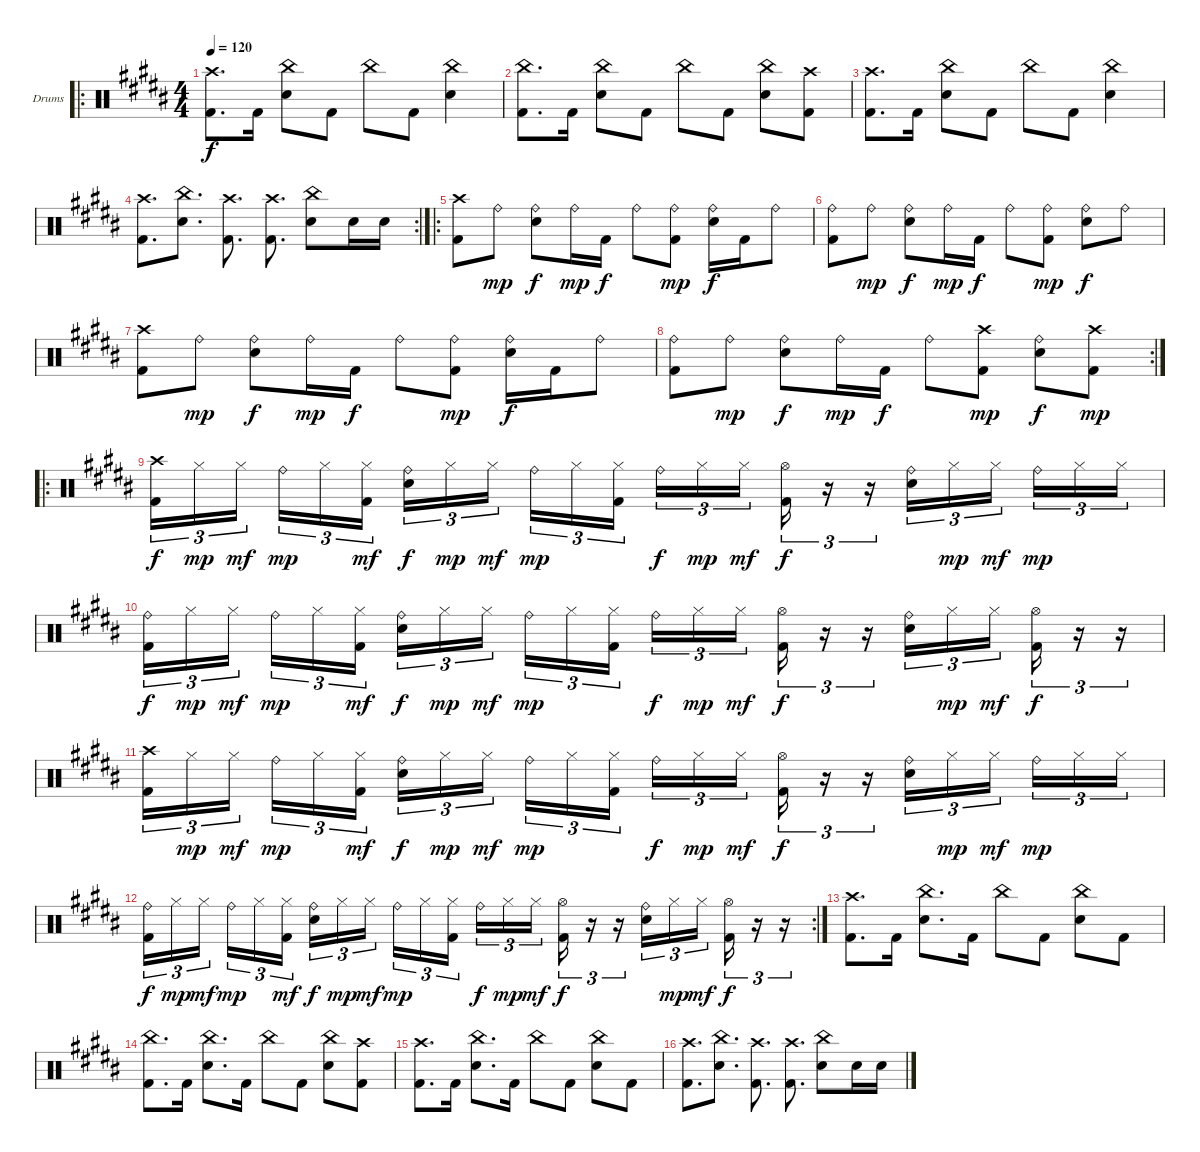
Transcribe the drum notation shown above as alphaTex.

\bracketExtendMode groupsimilarinstruments
\firstSystemTrackNameOrientation horizontal
\otherSystemsTrackNameOrientation horizontal
\track ("Drumkit" "Drums") {instrument percussion}
\staff {score}
\articulation defaults
\ro
\ts (4 4)
\tempo 120
\clef neutral
\ks g#minor
("Crash high (hit)"{acc forcenatural} "Kick (hit) 2"{acc forcenatural}).8{d dy f} "Kick (hit) 2"{acc forcenatural}.16 ("China (hit)"{acc forcenatural} "Snare (hit) 2"{acc forcenatural}).8 "Kick (hit) 2"{acc forcenatural}.8 "China (hit)"{acc forcenatural}.8 "Kick (hit) 2"{acc forcenatural}.8 ("China (hit)"{acc forcenatural} "Snare (hit) 2"{acc forcenatural}).4 |
("China (hit)"{acc forcenatural} "Kick (hit) 2"{acc forcenatural}).8{d} "Kick (hit) 2"{acc forcenatural}.16 ("China (hit)"{acc forcenatural} "Snare (hit) 2"{acc forcenatural}).8 "Kick (hit) 2"{acc forcenatural}.8 "China (hit)"{acc forcenatural}.8 "Kick (hit) 2"{acc forcenatural}.8 ("China (hit)"{acc forcenatural} "Snare (hit) 2"{acc forcenatural}).8 ("Crash high (hit)"{acc forcenatural} "Kick (hit) 2"{acc forcenatural}).8 |
("Crash high (hit)"{acc forcenatural} "Kick (hit) 2"{acc forcenatural}).8{d} "Kick (hit) 2"{acc forcenatural}.16 ("China (hit)"{acc forcenatural} "Snare (hit) 2"{acc forcenatural}).8 "Kick (hit) 2"{acc forcenatural}.8 "China (hit)"{acc forcenatural}.8 "Kick (hit) 2"{acc forcenatural}.8 ("China (hit)"{acc forcenatural} "Snare (hit) 2"{acc forcenatural}).4 |
\rc 2
("Crash high (hit)"{acc forcenatural} "Kick (hit) 2"{acc forcenatural}).8{d} ("China (hit)"{acc forcenatural} "Snare (hit) 2"{acc forcenatural}).8{d} ("Crash high (hit)"{acc forcenatural} "Kick (hit) 2"{acc forcenatural}).8{d} ("Crash high (hit)"{acc forcenatural} "Kick (hit) 2"{acc forcenatural}).8{d} ("China (hit)"{acc forcenatural} "Snare (hit) 2"{acc forcenatural}).8 "Snare (hit) 2"{acc forcenatural}.16 "Snare (hit) 2"{acc forcenatural}.16 |
\ro
("Crash high (hit)"{acc forcenatural} "Kick (hit) 2"{acc forcenatural}).8 "Ride (bell)"{acc forcenatural}.8{dy mp} ("Ride (bell)"{acc forcenatural} "Snare (hit) 2"{acc forcenatural}).8{dy f} "Ride (bell)"{acc forcenatural}.16{dy mp} "Kick (hit) 2"{acc forcenatural}.16{dy f} "Ride (bell)"{acc forcenatural}.8 ("Ride (bell)"{acc forcenatural} "Kick (hit) 2"{acc forcenatural}).8{dy mp} ("Ride (bell)"{acc forcenatural} "Snare (hit) 2"{acc forcenatural}).16{dy f} "Kick (hit) 2"{acc forcenatural}.16 "Ride (bell)"{acc forcenatural}.8 |
("Ride (bell)"{acc forcenatural} "Kick (hit) 2"{acc forcenatural}).8 "Ride (bell)"{acc forcenatural}.8{dy mp} ("Ride (bell)"{acc forcenatural} "Snare (hit) 2"{acc forcenatural}).8{dy f} "Ride (bell)"{acc forcenatural}.16{dy mp} "Kick (hit) 2"{acc forcenatural}.16{dy f} "Ride (bell)"{acc forcenatural}.8 ("Ride (bell)"{acc forcenatural} "Kick (hit) 2"{acc forcenatural}).8{dy mp} ("Ride (bell)"{acc forcenatural} "Snare (hit) 2"{acc forcenatural}).8{dy f} "Ride (bell)"{acc forcenatural}.8 |
("Crash high (hit)"{acc forcenatural} "Kick (hit) 2"{acc forcenatural}).8 "Ride (bell)"{acc forcenatural}.8{dy mp} ("Ride (bell)"{acc forcenatural} "Snare (hit) 2"{acc forcenatural}).8{dy f} "Ride (bell)"{acc forcenatural}.16{dy mp} "Kick (hit) 2"{acc forcenatural}.16{dy f} "Ride (bell)"{acc forcenatural}.8 ("Ride (bell)"{acc forcenatural} "Kick (hit) 2"{acc forcenatural}).8{dy mp} ("Ride (bell)"{acc forcenatural} "Snare (hit) 2"{acc forcenatural}).16{dy f} "Kick (hit) 2"{acc forcenatural}.16 "Ride (bell)"{acc forcenatural}.8 |
\rc 2
("Ride (bell)"{acc forcenatural} "Kick (hit) 2"{acc forcenatural}).8 "Ride (bell)"{acc forcenatural}.8{dy mp} ("Ride (bell)"{acc forcenatural} "Snare (hit) 2"{acc forcenatural}).8{dy f} "Ride (bell)"{acc forcenatural}.16{dy mp} "Kick (hit) 2"{acc forcenatural}.16{dy f} "Ride (bell)"{acc forcenatural}.8 ("Crash high (hit)"{acc forcenatural} "Kick (hit) 2"{acc forcenatural}).8{dy mp} ("Ride (bell)"{acc forcenatural} "Snare (hit) 2"{acc forcenatural}).8{dy f} ("Crash high (hit)"{acc forcenatural} "Kick (hit) 2"{acc forcenatural}).8{dy mp} |
\ro
("Crash high (hit)"{acc forcenatural} "Kick (hit) 2"{acc forcenatural}).16{tu (3 2) dy f} "Hi-Hat (closed)"{acc forcenatural}.16{tu (3 2) dy mp} "Hi-Hat (closed)"{acc forcenatural}.16{tu (3 2) dy mf} "Ride (bell)"{acc forcenatural}.16{tu (3 2) dy mp} "Hi-Hat (closed)"{acc forcenatural}.16{tu (3 2)} ("Hi-Hat (closed)"{acc forcenatural} "Kick (hit) 2"{acc forcenatural}).16{tu (3 2) dy mf} ("Ride (bell)"{acc forcenatural} "Snare (hit) 2"{acc forcenatural}).16{tu (3 2) dy f} "Hi-Hat (closed)"{acc forcenatural}.16{tu (3 2) dy mp} "Hi-Hat (closed)"{acc forcenatural}.16{tu (3 2) dy mf} "Ride (bell)"{acc forcenatural}.16{tu (3 2) dy mp} "Hi-Hat (closed)"{acc forcenatural}.16{tu (3 2)} ("Hi-Hat (closed)"{acc forcenatural} "Kick (hit) 2"{acc forcenatural}).16{tu (3 2)} "Ride (bell)"{acc forcenatural}.16{tu (3 2) dy f} "Hi-Hat (closed)"{acc forcenatural}.16{tu (3 2) dy mp} "Hi-Hat (closed)"{acc forcenatural}.16{tu (3 2) dy mf} ("Hi-Hat (open)"{acc forcenatural} "Kick (hit) 2"{acc forcenatural}).16{tu (3 2) dy f} r.16{tu (3 2)} r.16{tu (3 2)} ("Ride (bell)"{acc forcenatural} "Snare (hit) 2"{acc forcenatural}).16{tu (3 2)} "Hi-Hat (closed)"{acc forcenatural}.16{tu (3 2) dy mp} "Hi-Hat (closed)"{acc forcenatural}.16{tu (3 2) dy mf} "Ride (bell)"{acc forcenatural}.16{tu (3 2) dy mp} "Hi-Hat (closed)"{acc forcenatural}.16{tu (3 2)} "Hi-Hat (closed)"{acc forcenatural}.16{tu (3 2)} |
("Ride (bell)"{acc forcenatural} "Kick (hit) 2"{acc forcenatural}).16{tu (3 2) dy f} "Hi-Hat (closed)"{acc forcenatural}.16{tu (3 2) dy mp} "Hi-Hat (closed)"{acc forcenatural}.16{tu (3 2) dy mf} "Ride (bell)"{acc forcenatural}.16{tu (3 2) dy mp} "Hi-Hat (closed)"{acc forcenatural}.16{tu (3 2)} ("Hi-Hat (closed)"{acc forcenatural} "Kick (hit) 2"{acc forcenatural}).16{tu (3 2) dy mf} ("Ride (bell)"{acc forcenatural} "Snare (hit) 2"{acc forcenatural}).16{tu (3 2) dy f} "Hi-Hat (closed)"{acc forcenatural}.16{tu (3 2) dy mp} "Hi-Hat (closed)"{acc forcenatural}.16{tu (3 2) dy mf} "Ride (bell)"{acc forcenatural}.16{tu (3 2) dy mp} "Hi-Hat (closed)"{acc forcenatural}.16{tu (3 2)} ("Hi-Hat (closed)"{acc forcenatural} "Kick (hit) 2"{acc forcenatural}).16{tu (3 2)} "Ride (bell)"{acc forcenatural}.16{tu (3 2) dy f} "Hi-Hat (closed)"{acc forcenatural}.16{tu (3 2) dy mp} "Hi-Hat (closed)"{acc forcenatural}.16{tu (3 2) dy mf} ("Hi-Hat (open)"{acc forcenatural} "Kick (hit) 2"{acc forcenatural}).16{tu (3 2) dy f} r.16{tu (3 2)} r.16{tu (3 2)} ("Ride (bell)"{acc forcenatural} "Snare (hit) 2"{acc forcenatural}).16{tu (3 2)} "Hi-Hat (closed)"{acc forcenatural}.16{tu (3 2) dy mp} "Hi-Hat (closed)"{acc forcenatural}.16{tu (3 2) dy mf} ("Hi-Hat (open)"{acc forcenatural} "Kick (hit) 2"{acc forcenatural}).16{tu (3 2) dy f} r.16{tu (3 2)} r.16{tu (3 2)} |
("Crash high (hit)"{acc forcenatural} "Kick (hit) 2"{acc forcenatural}).16{tu (3 2)} "Hi-Hat (closed)"{acc forcenatural}.16{tu (3 2) dy mp} "Hi-Hat (closed)"{acc forcenatural}.16{tu (3 2) dy mf} "Ride (bell)"{acc forcenatural}.16{tu (3 2) dy mp} "Hi-Hat (closed)"{acc forcenatural}.16{tu (3 2)} ("Hi-Hat (closed)"{acc forcenatural} "Kick (hit) 2"{acc forcenatural}).16{tu (3 2) dy mf} ("Ride (bell)"{acc forcenatural} "Snare (hit) 2"{acc forcenatural}).16{tu (3 2) dy f} "Hi-Hat (closed)"{acc forcenatural}.16{tu (3 2) dy mp} "Hi-Hat (closed)"{acc forcenatural}.16{tu (3 2) dy mf} "Ride (bell)"{acc forcenatural}.16{tu (3 2) dy mp} "Hi-Hat (closed)"{acc forcenatural}.16{tu (3 2)} ("Hi-Hat (closed)"{acc forcenatural} "Kick (hit) 2"{acc forcenatural}).16{tu (3 2)} "Ride (bell)"{acc forcenatural}.16{tu (3 2) dy f} "Hi-Hat (closed)"{acc forcenatural}.16{tu (3 2) dy mp} "Hi-Hat (closed)"{acc forcenatural}.16{tu (3 2) dy mf} ("Hi-Hat (open)"{acc forcenatural} "Kick (hit) 2"{acc forcenatural}).16{tu (3 2) dy f} r.16{tu (3 2)} r.16{tu (3 2)} ("Ride (bell)"{acc forcenatural} "Snare (hit) 2"{acc forcenatural}).16{tu (3 2)} "Hi-Hat (closed)"{acc forcenatural}.16{tu (3 2) dy mp} "Hi-Hat (closed)"{acc forcenatural}.16{tu (3 2) dy mf} "Ride (bell)"{acc forcenatural}.16{tu (3 2) dy mp} "Hi-Hat (closed)"{acc forcenatural}.16{tu (3 2)} "Hi-Hat (closed)"{acc forcenatural}.16{tu (3 2)} |
\rc 2
("Ride (bell)"{acc forcenatural} "Kick (hit) 2"{acc forcenatural}).16{tu (3 2) dy f} "Hi-Hat (closed)"{acc forcenatural}.16{tu (3 2) dy mp} "Hi-Hat (closed)"{acc forcenatural}.16{tu (3 2) dy mf} "Ride (bell)"{acc forcenatural}.16{tu (3 2) dy mp} "Hi-Hat (closed)"{acc forcenatural}.16{tu (3 2)} ("Hi-Hat (closed)"{acc forcenatural} "Kick (hit) 2"{acc forcenatural}).16{tu (3 2) dy mf} ("Ride (bell)"{acc forcenatural} "Snare (hit) 2"{acc forcenatural}).16{tu (3 2) dy f} "Hi-Hat (closed)"{acc forcenatural}.16{tu (3 2) dy mp} "Hi-Hat (closed)"{acc forcenatural}.16{tu (3 2) dy mf} "Ride (bell)"{acc forcenatural}.16{tu (3 2) dy mp} "Hi-Hat (closed)"{acc forcenatural}.16{tu (3 2)} ("Hi-Hat (closed)"{acc forcenatural} "Kick (hit) 2"{acc forcenatural}).16{tu (3 2)} "Ride (bell)"{acc forcenatural}.16{tu (3 2) dy f} "Hi-Hat (closed)"{acc forcenatural}.16{tu (3 2) dy mp} "Hi-Hat (closed)"{acc forcenatural}.16{tu (3 2) dy mf} ("Hi-Hat (open)"{acc forcenatural} "Kick (hit) 2"{acc forcenatural}).16{tu (3 2) dy f} r.16{tu (3 2)} r.16{tu (3 2)} ("Ride (bell)"{acc forcenatural} "Snare (hit) 2"{acc forcenatural}).16{tu (3 2)} "Hi-Hat (closed)"{acc forcenatural}.16{tu (3 2) dy mp} "Hi-Hat (closed)"{acc forcenatural}.16{tu (3 2) dy mf} ("Hi-Hat (open)"{acc forcenatural} "Kick (hit) 2"{acc forcenatural}).16{tu (3 2) dy f} r.16{tu (3 2)} r.16{tu (3 2)} |
("Crash high (hit)"{acc forcenatural} "Kick (hit) 2"{acc forcenatural}).8{d} "Kick (hit) 2"{acc forcenatural}.16 ("China (hit)"{acc forcenatural} "Snare (hit) 2"{acc forcenatural}).8{d} "Kick (hit) 2"{acc forcenatural}.16 "China (hit)"{acc forcenatural}.8 "Kick (hit) 2"{acc forcenatural}.8 ("China (hit)"{acc forcenatural} "Snare (hit) 2"{acc forcenatural}).8 "Kick (hit) 2"{acc forcenatural}.8 |
("China (hit)"{acc forcenatural} "Kick (hit) 2"{acc forcenatural}).8{d} "Kick (hit) 2"{acc forcenatural}.16 ("China (hit)"{acc forcenatural} "Snare (hit) 2"{acc forcenatural}).8{d} "Kick (hit) 2"{acc forcenatural}.16 "China (hit)"{acc forcenatural}.8 "Kick (hit) 2"{acc forcenatural}.8 ("China (hit)"{acc forcenatural} "Snare (hit) 2"{acc forcenatural}).8 ("Crash high (hit)"{acc forcenatural} "Kick (hit) 2"{acc forcenatural}).8 |
("Crash high (hit)"{acc forcenatural} "Kick (hit) 2"{acc forcenatural}).8{d} "Kick (hit) 2"{acc forcenatural}.16 ("China (hit)"{acc forcenatural} "Snare (hit) 2"{acc forcenatural}).8{d} "Kick (hit) 2"{acc forcenatural}.16 "China (hit)"{acc forcenatural}.8 "Kick (hit) 2"{acc forcenatural}.8 ("China (hit)"{acc forcenatural} "Snare (hit) 2"{acc forcenatural}).8 "Kick (hit) 2"{acc forcenatural}.8 |
("Crash high (hit)"{acc forcenatural} "Kick (hit) 2"{acc forcenatural}).8{d} ("China (hit)"{acc forcenatural} "Snare (hit) 2"{acc forcenatural}).8{d} ("Crash high (hit)"{acc forcenatural} "Kick (hit) 2"{acc forcenatural}).8{d} ("Crash high (hit)"{acc forcenatural} "Kick (hit) 2"{acc forcenatural}).8{d} ("China (hit)"{acc forcenatural} "Snare (hit) 2"{acc forcenatural}).8 "Snare (hit) 2"{acc forcenatural}.16 "Snare (hit) 2"{acc forcenatural}.16
